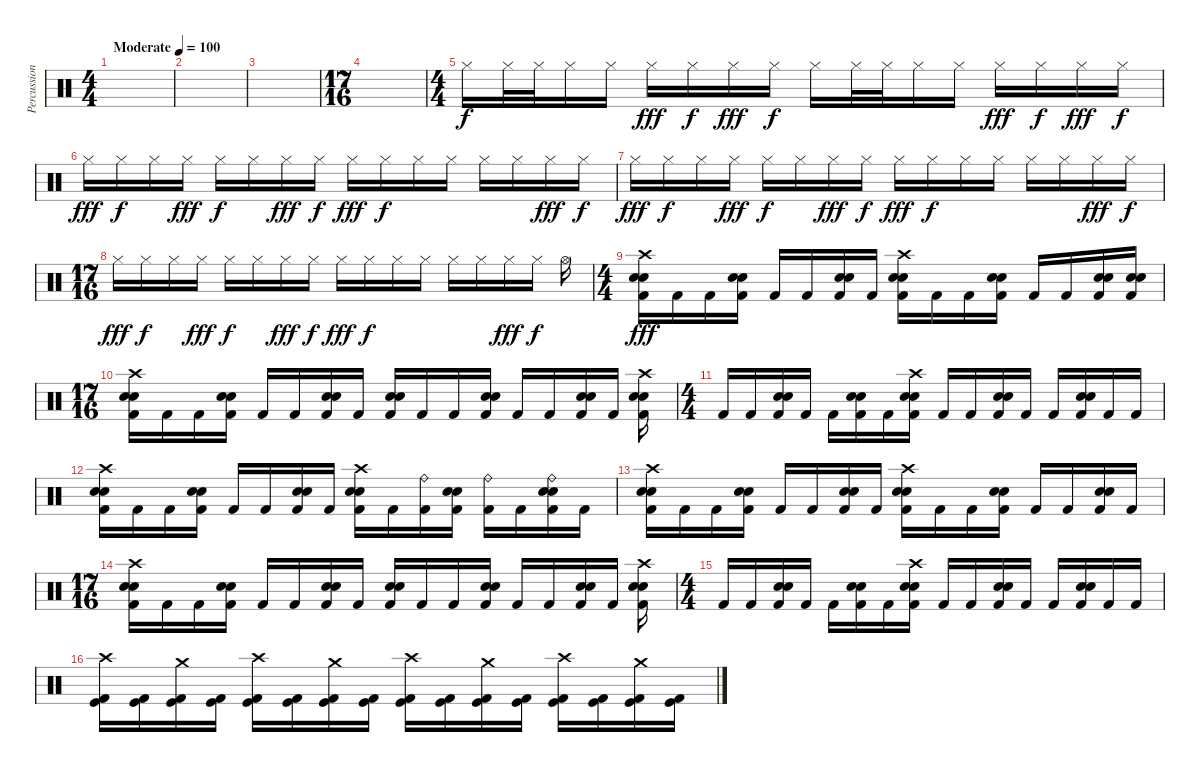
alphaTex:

\track ("Percussion" "Percussion") {instrument percussion}
\staff {score}
\articulation defaults
\ts (4 4)
\tempo (100 "Moderate")
\clef neutral
\ks c
|
|
|
\ts (17 16)
|
\ts (4 4)
"Hi-Hat (closed)".16 "Hi-Hat (closed)".32 "Hi-Hat (closed)".32 "Hi-Hat (closed)".16 "Hi-Hat (closed)".16 "Hi-Hat (closed)".16{dy fff} "Hi-Hat (closed)".16{dy f} "Hi-Hat (closed)".16{dy fff} "Hi-Hat (closed)".16{dy f} "Hi-Hat (closed)".16 "Hi-Hat (closed)".32 "Hi-Hat (closed)".32 "Hi-Hat (closed)".16 "Hi-Hat (closed)".16 "Hi-Hat (closed)".16{dy fff} "Hi-Hat (closed)".16{dy f} "Hi-Hat (closed)".16{dy fff} "Hi-Hat (closed)".16{dy f} |
"Hi-Hat (closed)".16{dy fff} "Hi-Hat (closed)".16{dy f} "Hi-Hat (closed)".16 "Hi-Hat (closed)".16{dy fff} "Hi-Hat (closed)".16{dy f} "Hi-Hat (closed)".16 "Hi-Hat (closed)".16{dy fff} "Hi-Hat (closed)".16{dy f} "Hi-Hat (closed)".16{dy fff} "Hi-Hat (closed)".16{dy f} "Hi-Hat (closed)".16 "Hi-Hat (closed)".16 "Hi-Hat (closed)".16 "Hi-Hat (closed)".16 "Hi-Hat (closed)".16{dy fff} "Hi-Hat (closed)".16{dy f} |
"Hi-Hat (closed)".16{dy fff} "Hi-Hat (closed)".16{dy f} "Hi-Hat (closed)".16 "Hi-Hat (closed)".16{dy fff} "Hi-Hat (closed)".16{dy f} "Hi-Hat (closed)".16 "Hi-Hat (closed)".16{dy fff} "Hi-Hat (closed)".16{dy f} "Hi-Hat (closed)".16{dy fff} "Hi-Hat (closed)".16{dy f} "Hi-Hat (closed)".16 "Hi-Hat (closed)".16 "Hi-Hat (closed)".16 "Hi-Hat (closed)".16 "Hi-Hat (closed)".16{dy fff} "Hi-Hat (closed)".16{dy f} |
\ts (17 16)
"Hi-Hat (closed)".16{dy fff} "Hi-Hat (closed)".16{dy f} "Hi-Hat (closed)".16 "Hi-Hat (closed)".16{dy fff} "Hi-Hat (closed)".16{dy f} "Hi-Hat (closed)".16 "Hi-Hat (closed)".16{dy fff} "Hi-Hat (closed)".16{dy f} "Hi-Hat (closed)".16{dy fff} "Hi-Hat (closed)".16{dy f} "Hi-Hat (closed)".16 "Hi-Hat (closed)".16 "Hi-Hat (closed)".16 "Hi-Hat (closed)".16 "Hi-Hat (closed)".16{dy fff} "Hi-Hat (closed)".16{dy f} "Hi-Hat (open)".16 |
\ts (4 4)
("Crash high (hit)" "Electric Snare (hit)" "Snare (hit) 2" "Kick (hit) 2").16{dy fff} "Kick (hit) 2".16 "Kick (hit) 2".16 ("Electric Snare (hit)" "Snare (hit) 2" "Kick (hit) 2").16 "Kick (hit) 2".16 "Kick (hit) 2".16 ("Electric Snare (hit)" "Snare (hit) 2" "Kick (hit) 2").16 "Kick (hit) 2".16 ("Crash high (hit)" "Electric Snare (hit)" "Snare (hit) 2" "Kick (hit) 2").16 "Kick (hit) 2".16 "Kick (hit) 2".16 ("Electric Snare (hit)" "Snare (hit) 2" "Kick (hit) 2").16 "Kick (hit) 2".16 "Kick (hit) 2".16 ("Electric Snare (hit)" "Snare (hit) 2" "Kick (hit) 2").16 ("Electric Snare (hit)" "Snare (hit) 2" "Kick (hit) 2").16 |
\ts (17 16)
("Crash high (hit)" "Electric Snare (hit)" "Snare (hit) 2" "Kick (hit) 2").16 "Kick (hit) 2".16 "Kick (hit) 2".16 ("Electric Snare (hit)" "Snare (hit) 2" "Kick (hit) 2").16 "Kick (hit) 2".16 "Kick (hit) 2".16 ("Electric Snare (hit)" "Snare (hit) 2" "Kick (hit) 2").16 "Kick (hit) 2".16 ("Electric Snare (hit)" "Snare (hit) 2" "Kick (hit) 2").16 "Kick (hit) 2".16 "Kick (hit) 2".16 ("Electric Snare (hit)" "Snare (hit) 2" "Kick (hit) 2").16 "Kick (hit) 2".16 "Kick (hit) 2".16 ("Electric Snare (hit)" "Snare (hit) 2" "Kick (hit) 2").16 "Kick (hit) 2".16 ("Crash high (hit)" "Electric Snare (hit)" "Snare (hit) 2" "Kick (hit) 2").16 |
\ts (4 4)
"Kick (hit) 2".16 "Kick (hit) 2".16 ("Electric Snare (hit)" "Snare (hit) 2" "Kick (hit) 2").16 "Kick (hit) 2".16 "Kick (hit) 2".16 ("Electric Snare (hit)" "Snare (hit) 2" "Kick (hit) 2").16 "Kick (hit) 2".16 ("Crash high (hit)" "Electric Snare (hit)" "Snare (hit) 2" "Kick (hit) 2").16 "Kick (hit) 2".16 "Kick (hit) 2".16 ("Electric Snare (hit)" "Snare (hit) 2" "Kick (hit) 2").16 "Kick (hit) 2".16 "Kick (hit) 2".16 ("Electric Snare (hit)" "Snare (hit) 2" "Kick (hit) 2").16 "Kick (hit) 2".16 "Kick (hit) 2".16 |
("Crash high (hit)" "Electric Snare (hit)" "Snare (hit) 2" "Kick (hit) 2").16 "Kick (hit) 2".16 "Kick (hit) 2".16 ("Electric Snare (hit)" "Snare (hit) 2" "Kick (hit) 2").16 "Kick (hit) 2".16 "Kick (hit) 2".16 ("Electric Snare (hit)" "Snare (hit) 2" "Kick (hit) 2").16 "Kick (hit) 2".16 ("Crash high (hit)" "Electric Snare (hit)" "Snare (hit) 2" "Kick (hit) 2").16 "Kick (hit) 2".16 ("Ride (bell)" "Kick (hit) 2").16 ("Electric Snare (hit)" "Snare (hit) 2" "Kick (hit) 2").16 ("Ride (bell)" "Kick (hit) 2").16 "Kick (hit) 2".16 ("Ride (bell)" "Electric Snare (hit)" "Snare (hit) 2" "Kick (hit) 2").16 "Kick (hit) 2".16 |
("Crash high (hit)" "Electric Snare (hit)" "Snare (hit) 2" "Kick (hit) 2").16 "Kick (hit) 2".16 "Kick (hit) 2".16 ("Electric Snare (hit)" "Snare (hit) 2" "Kick (hit) 2").16 "Kick (hit) 2".16 "Kick (hit) 2".16 ("Electric Snare (hit)" "Snare (hit) 2" "Kick (hit) 2").16 "Kick (hit) 2".16 ("Crash high (hit)" "Electric Snare (hit)" "Snare (hit) 2" "Kick (hit) 2").16 "Kick (hit) 2".16 "Kick (hit) 2".16 ("Electric Snare (hit)" "Snare (hit) 2" "Kick (hit) 2").16 "Kick (hit) 2".16 "Kick (hit) 2".16 ("Electric Snare (hit)" "Snare (hit) 2" "Kick (hit) 2").16 "Kick (hit) 2".16 |
\ts (17 16)
("Crash high (hit)" "Electric Snare (hit)" "Snare (hit) 2" "Kick (hit) 2").16 "Kick (hit) 2".16 "Kick (hit) 2".16 ("Electric Snare (hit)" "Snare (hit) 2" "Kick (hit) 2").16 "Kick (hit) 2".16 "Kick (hit) 2".16 ("Electric Snare (hit)" "Snare (hit) 2" "Kick (hit) 2").16 "Kick (hit) 2".16 ("Electric Snare (hit)" "Snare (hit) 2" "Kick (hit) 2").16 "Kick (hit) 2".16 "Kick (hit) 2".16 ("Electric Snare (hit)" "Snare (hit) 2" "Kick (hit) 2").16 "Kick (hit) 2".16 "Kick (hit) 2".16 ("Electric Snare (hit)" "Snare (hit) 2" "Kick (hit) 2").16 "Kick (hit) 2".16 ("Crash high (hit)" "Electric Snare (hit)" "Snare (hit) 2" "Kick (hit) 2").16 |
\ts (4 4)
"Kick (hit) 2".16 "Kick (hit) 2".16 ("Electric Snare (hit)" "Snare (hit) 2" "Kick (hit) 2").16 "Kick (hit) 2".16 "Kick (hit) 2".16 ("Electric Snare (hit)" "Snare (hit) 2" "Kick (hit) 2").16 "Kick (hit) 2".16 ("Crash high (hit)" "Electric Snare (hit)" "Snare (hit) 2" "Kick (hit) 2").16 "Kick (hit) 2".16 "Kick (hit) 2".16 ("Electric Snare (hit)" "Snare (hit) 2" "Kick (hit) 2").16 "Kick (hit) 2".16 "Kick (hit) 2".16 ("Electric Snare (hit)" "Snare (hit) 2" "Kick (hit) 2").16 "Kick (hit) 2".16 "Kick (hit) 2".16 |
("Crash high (hit)" "Kick (hit)" "Kick (hit) 2").16 ("Kick (hit)" "Kick (hit) 2").16 ("Crash medium (hit)" "Kick (hit)" "Kick (hit) 2").16 ("Kick (hit)" "Kick (hit) 2").16 ("Crash high (hit)" "Kick (hit)" "Kick (hit) 2").16 ("Kick (hit)" "Kick (hit) 2").16 ("Crash medium (hit)" "Kick (hit)" "Kick (hit) 2").16 ("Kick (hit)" "Kick (hit) 2").16 ("Crash high (hit)" "Kick (hit)" "Kick (hit) 2").16 ("Kick (hit)" "Kick (hit) 2").16 ("Crash medium (hit)" "Kick (hit)" "Kick (hit) 2").16 ("Kick (hit)" "Kick (hit) 2").16 ("Crash high (hit)" "Kick (hit)" "Kick (hit) 2").16 ("Kick (hit)" "Kick (hit) 2").16 ("Crash medium (hit)" "Kick (hit)" "Kick (hit) 2").16 ("Kick (hit)" "Kick (hit) 2").16
